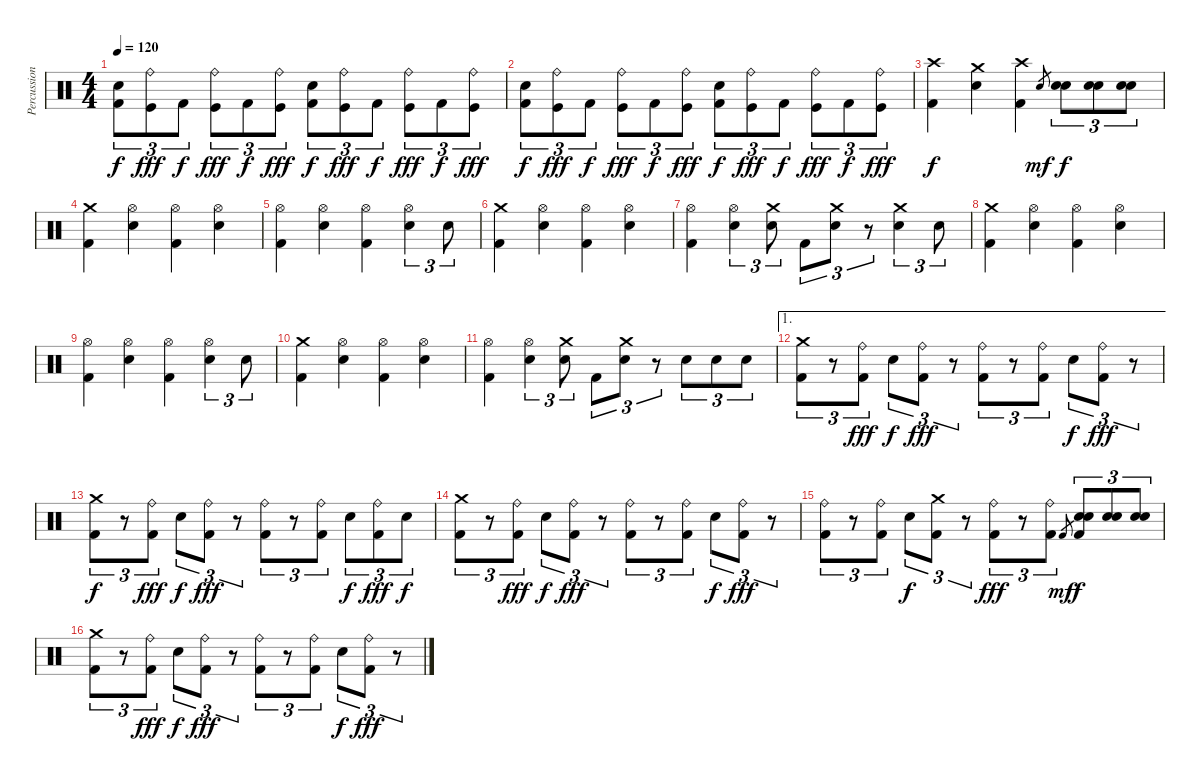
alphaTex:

\track ("Percussions" "Percussion") {instrument percussion}
\staff {score}
\articulation defaults
\ts (4 4)
\tempo 120
\clef neutral
\ks c
("Kick (hit) 2" "Electric Snare (hit)").8{tu (3 2) dy f} ("Kick (hit)" "Ride (bell)").8{tu (3 2) dy fff} "Kick (hit) 2".8{tu (3 2) dy f} ("Kick (hit)" "Ride (bell)").8{tu (3 2) dy fff} "Kick (hit) 2".8{tu (3 2) dy f} ("Kick (hit)" "Ride (bell)").8{tu (3 2) dy fff} ("Kick (hit) 2" "Electric Snare (hit)").8{tu (3 2) dy f} ("Kick (hit)" "Ride (bell)").8{tu (3 2) dy fff} "Kick (hit) 2".8{tu (3 2) dy f} ("Kick (hit)" "Ride (bell)").8{tu (3 2) dy fff} "Kick (hit) 2".8{tu (3 2) dy f} ("Kick (hit)" "Ride (bell)").8{tu (3 2) dy fff} |
("Kick (hit) 2" "Electric Snare (hit)").8{tu (3 2) dy f} ("Kick (hit)" "Ride (bell)").8{tu (3 2) dy fff} "Kick (hit) 2".8{tu (3 2) dy f} ("Kick (hit)" "Ride (bell)").8{tu (3 2) dy fff} "Kick (hit) 2".8{tu (3 2) dy f} ("Kick (hit)" "Ride (bell)").8{tu (3 2) dy fff} ("Kick (hit) 2" "Electric Snare (hit)").8{tu (3 2) dy f} ("Kick (hit)" "Ride (bell)").8{tu (3 2) dy fff} "Kick (hit) 2".8{tu (3 2) dy f} ("Kick (hit)" "Ride (bell)").8{tu (3 2) dy fff} "Kick (hit) 2".8{tu (3 2) dy f} ("Kick (hit)" "Ride (bell)").8{tu (3 2) dy fff} |
("Kick (hit) 2" "Crash high (hit)").4{dy f} ("Electric Snare (hit)" "Crash medium (hit)").4 ("Kick (hit) 2" "Crash high (hit)").4 "Electric Snare (hit)".8{gr dy mf} ("Electric Snare (hit)" "Snare (hit) 2").8{tu (3 2) dy f} ("Electric Snare (hit)" "Snare (hit) 2").8{tu (3 2)} ("Electric Snare (hit)" "Snare (hit) 2").8{tu (3 2)} |
("Kick (hit) 2" "Crash medium (hit)").4 ("Electric Snare (hit)" "Hi-Hat (open)").4 ("Kick (hit) 2" "Hi-Hat (open)").4 ("Electric Snare (hit)" "Hi-Hat (open)").4 |
("Kick (hit) 2" "Hi-Hat (open)").4 ("Electric Snare (hit)" "Hi-Hat (open)").4 ("Kick (hit) 2" "Hi-Hat (open)").4 ("Electric Snare (hit)" "Hi-Hat (open)").4{tu (3 2)} "Electric Snare (hit)".8{tu (3 2)} |
("Kick (hit) 2" "Crash medium (hit)").4 ("Electric Snare (hit)" "Hi-Hat (open)").4 ("Kick (hit) 2" "Hi-Hat (open)").4 ("Electric Snare (hit)" "Hi-Hat (open)").4 |
("Kick (hit) 2" "Hi-Hat (open)").4 ("Electric Snare (hit)" "Hi-Hat (open)").4{tu (3 2)} ("Electric Snare (hit)" "Crash medium (hit)").8{tu (3 2)} "Kick (hit) 2".8{tu (3 2)} ("Electric Snare (hit)" "Crash medium (hit)").8{tu (3 2)} r.8{tu (3 2)} ("Electric Snare (hit)" "Crash medium (hit)").4{tu (3 2)} "Electric Snare (hit)".8{tu (3 2)} |
("Kick (hit) 2" "Crash medium (hit)").4 ("Electric Snare (hit)" "Hi-Hat (open)").4 ("Kick (hit) 2" "Hi-Hat (open)").4 ("Electric Snare (hit)" "Hi-Hat (open)").4 |
("Kick (hit) 2" "Hi-Hat (open)").4 ("Electric Snare (hit)" "Hi-Hat (open)").4 ("Kick (hit) 2" "Hi-Hat (open)").4 ("Electric Snare (hit)" "Hi-Hat (open)").4{tu (3 2)} "Electric Snare (hit)".8{tu (3 2)} |
("Kick (hit) 2" "Crash medium (hit)").4 ("Electric Snare (hit)" "Hi-Hat (open)").4 ("Kick (hit) 2" "Hi-Hat (open)").4 ("Electric Snare (hit)" "Hi-Hat (open)").4 |
("Kick (hit) 2" "Hi-Hat (open)").4 ("Electric Snare (hit)" "Hi-Hat (open)").4{tu (3 2)} ("Electric Snare (hit)" "Crash medium (hit)").8{tu (3 2)} "Kick (hit) 2".8{tu (3 2)} ("Electric Snare (hit)" "Crash medium (hit)").8{tu (3 2)} r.8{tu (3 2)} "Electric Snare (hit)".8{tu (3 2)} "Electric Snare (hit)".8{tu (3 2)} "Electric Snare (hit)".8{tu (3 2)} |
\ae 1
("Kick (hit) 2" "Crash medium (hit)").8{tu (3 2)} r.8{tu (3 2)} ("Kick (hit) 2" "Ride (bell)").8{tu (3 2) dy fff} "Electric Snare (hit)".8{tu (3 2) dy f} ("Kick (hit) 2" "Ride (bell)").8{tu (3 2) dy fff} r.8{tu (3 2)} ("Kick (hit) 2" "Ride (bell)").8{tu (3 2)} r.8{tu (3 2)} ("Kick (hit) 2" "Ride (bell)").8{tu (3 2)} "Electric Snare (hit)".8{tu (3 2) dy f} ("Kick (hit) 2" "Ride (bell)").8{tu (3 2) dy fff} r.8{tu (3 2)} |
("Kick (hit) 2" "Crash medium (hit)").8{tu (3 2) dy f} r.8{tu (3 2)} ("Kick (hit) 2" "Ride (bell)").8{tu (3 2) dy fff} "Electric Snare (hit)".8{tu (3 2) dy f} ("Kick (hit) 2" "Ride (bell)").8{tu (3 2) dy fff} r.8{tu (3 2)} ("Kick (hit) 2" "Ride (bell)").8{tu (3 2)} r.8{tu (3 2)} ("Kick (hit) 2" "Ride (bell)").8{tu (3 2)} "Electric Snare (hit)".8{tu (3 2) dy f} ("Kick (hit) 2" "Ride (bell)").8{tu (3 2) dy fff} "Electric Snare (hit)".8{tu (3 2) dy f} |
("Kick (hit) 2" "Crash medium (hit)").8{tu (3 2)} r.8{tu (3 2)} ("Kick (hit) 2" "Ride (bell)").8{tu (3 2) dy fff} "Electric Snare (hit)".8{tu (3 2) dy f} ("Kick (hit) 2" "Ride (bell)").8{tu (3 2) dy fff} r.8{tu (3 2)} ("Kick (hit) 2" "Ride (bell)").8{tu (3 2)} r.8{tu (3 2)} ("Kick (hit) 2" "Ride (bell)").8{tu (3 2)} "Electric Snare (hit)".8{tu (3 2) dy f} ("Kick (hit) 2" "Ride (bell)").8{tu (3 2) dy fff} r.8{tu (3 2)} |
("Kick (hit) 2" "Ride (bell)").8{tu (3 2)} r.8{tu (3 2)} ("Kick (hit) 2" "Ride (bell)").8{tu (3 2)} "Electric Snare (hit)".8{tu (3 2) dy f} ("Kick (hit) 2" "Crash medium (hit)").8{tu (3 2)} r.8{tu (3 2)} ("Kick (hit) 2" "Ride (bell)").8{tu (3 2) dy fff} r.8{tu (3 2)} ("Kick (hit) 2" "Ride (bell)").8{tu (3 2)} "Kick (hit) 2".8{gr dy mf} ("Kick (hit) 2" "Snare (hit) 2" "Electric Snare (hit)").8{tu (3 2) dy f} ("Snare (hit) 2" "Electric Snare (hit)").8{tu (3 2)} ("Snare (hit) 2" "Electric Snare (hit)").8{tu (3 2)} |
("Kick (hit) 2" "Crash medium (hit)").8{tu (3 2)} r.8{tu (3 2)} ("Kick (hit) 2" "Ride (bell)").8{tu (3 2) dy fff} "Electric Snare (hit)".8{tu (3 2) dy f} ("Kick (hit) 2" "Ride (bell)").8{tu (3 2) dy fff} r.8{tu (3 2)} ("Kick (hit) 2" "Ride (bell)").8{tu (3 2)} r.8{tu (3 2)} ("Kick (hit) 2" "Ride (bell)").8{tu (3 2)} "Electric Snare (hit)".8{tu (3 2) dy f} ("Kick (hit) 2" "Ride (bell)").8{tu (3 2) dy fff} r.8{tu (3 2)}
